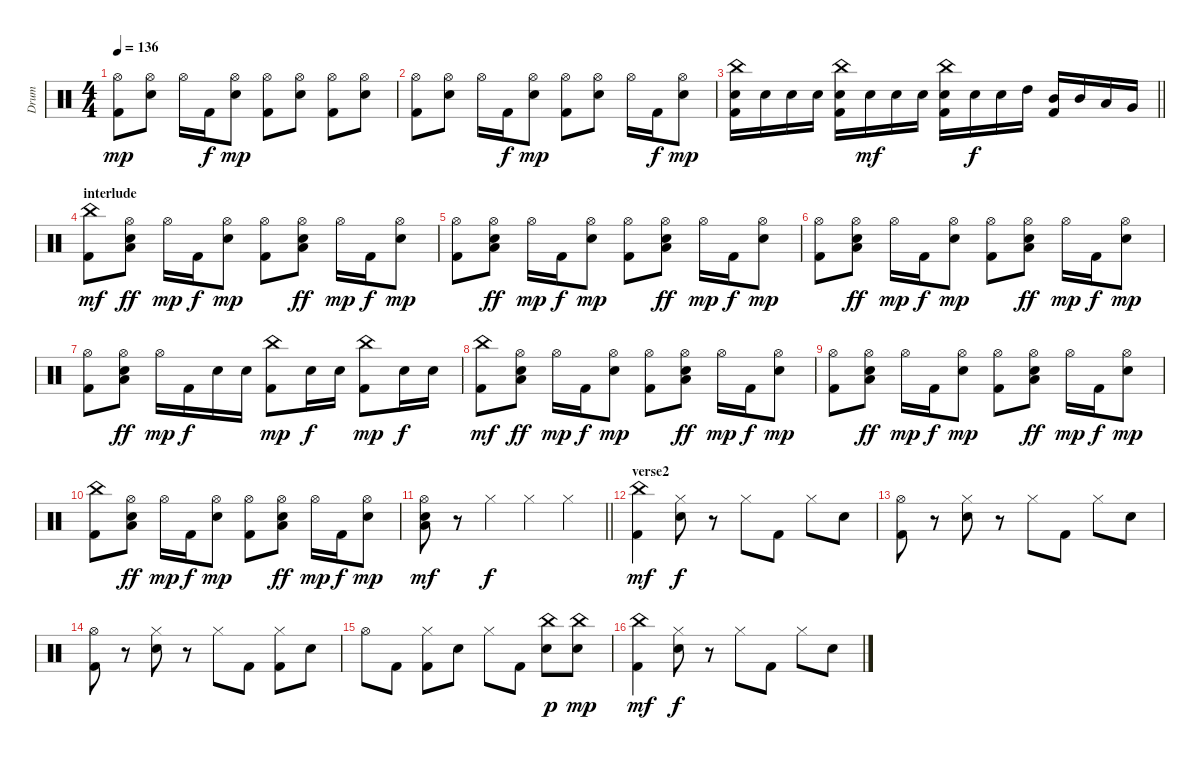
\track ("Drum" "Drum") {instrument percussion}
\staff {score}
\articulation defaults
\ts (4 4)
\tempo 136
\clef neutral
\ks c
("Kick (hit) 2" "Hi-Hat (open)").8{dy mp} ("Electric Snare (hit)" "Hi-Hat (open)").8 "Hi-Hat (open)".16 "Kick (hit) 2".16{dy f} ("Electric Snare (hit)" "Hi-Hat (open)").8{dy mp} ("Kick (hit) 2" "Hi-Hat (open)").8 ("Electric Snare (hit)" "Hi-Hat (open)").8 ("Kick (hit) 2" "Hi-Hat (open)").8 ("Electric Snare (hit)" "Hi-Hat (open)").8 |
("Kick (hit) 2" "Hi-Hat (open)").8 ("Electric Snare (hit)" "Hi-Hat (open)").8 "Hi-Hat (open)".16 "Kick (hit) 2".16{dy f} ("Electric Snare (hit)" "Hi-Hat (open)").8{dy mp} ("Kick (hit) 2" "Hi-Hat (open)").8 ("Electric Snare (hit)" "Hi-Hat (open)").8 "Hi-Hat (open)".16 "Kick (hit) 2".16{dy f} ("Electric Snare (hit)" "Hi-Hat (open)").8{dy mp} |
\barLineRight lightlight
("Electric Snare (hit)" "Kick (hit) 2" "China (hit)").16 "Electric Snare (hit)".16 "Electric Snare (hit)".16 "Electric Snare (hit)".16 ("Electric Snare (hit)" "Kick (hit) 2" "China (hit)").16 "Electric Snare (hit)".16{dy mf} "Electric Snare (hit)".16 "Electric Snare (hit)".16 ("Electric Snare (hit)" "Kick (hit) 2" "China (hit)").16 "Electric Snare (hit)".16{dy f} "Electric Snare (hit)".16 "High Tom (hit)".16 ("Mid Tom (hit)" "Kick (hit) 2").16 "Mid Tom (hit)".16 "Low Tom (hit)".16 "Very Low Tom (hit)".16 |
\section ("" "interlude")
("Kick (hit) 2" "China (hit)").8{dy mf} ("Electric Snare (hit)" "Hi-Hat (open)" "Low Tom (hit)").8{dy ff} "Hi-Hat (open)".16{dy mp} "Kick (hit) 2".16{dy f} ("Electric Snare (hit)" "Hi-Hat (open)").8{dy mp} ("Kick (hit) 2" "Hi-Hat (open)").8 ("Electric Snare (hit)" "Hi-Hat (open)" "Low Tom (hit)").8{dy ff} "Hi-Hat (open)".16{dy mp} "Kick (hit) 2".16{dy f} ("Electric Snare (hit)" "Hi-Hat (open)").8{dy mp} |
("Kick (hit) 2" "Hi-Hat (open)").8 ("Electric Snare (hit)" "Hi-Hat (open)" "Low Tom (hit)").8{dy ff} "Hi-Hat (open)".16{dy mp} "Kick (hit) 2".16{dy f} ("Electric Snare (hit)" "Hi-Hat (open)").8{dy mp} ("Kick (hit) 2" "Hi-Hat (open)").8 ("Electric Snare (hit)" "Hi-Hat (open)" "Low Tom (hit)").8{dy ff} "Hi-Hat (open)".16{dy mp} "Kick (hit) 2".16{dy f} ("Electric Snare (hit)" "Hi-Hat (open)").8{dy mp} |
("Kick (hit) 2" "Hi-Hat (open)").8 ("Electric Snare (hit)" "Hi-Hat (open)" "Low Tom (hit)").8{dy ff} "Hi-Hat (open)".16{dy mp} "Kick (hit) 2".16{dy f} ("Electric Snare (hit)" "Hi-Hat (open)").8{dy mp} ("Kick (hit) 2" "Hi-Hat (open)").8 ("Electric Snare (hit)" "Hi-Hat (open)" "Low Tom (hit)").8{dy ff} "Hi-Hat (open)".16{dy mp} "Kick (hit) 2".16{dy f} ("Electric Snare (hit)" "Hi-Hat (open)").8{dy mp} |
("Kick (hit) 2" "Hi-Hat (open)").8 ("Electric Snare (hit)" "Hi-Hat (open)" "Low Tom (hit)").8{dy ff} "Hi-Hat (open)".16{dy mp} "Kick (hit) 2".16{dy f} "Electric Snare (hit)".16 "Electric Snare (hit)".16 ("Kick (hit) 2" "China (hit)").8{dy mp} "Electric Snare (hit)".16{dy f} "Electric Snare (hit)".16 ("Kick (hit) 2" "China (hit)").8{dy mp} "Electric Snare (hit)".16{dy f} "Electric Snare (hit)".16 |
("Kick (hit) 2" "China (hit)").8{dy mf} ("Electric Snare (hit)" "Hi-Hat (open)" "Low Tom (hit)").8{dy ff} "Hi-Hat (open)".16{dy mp} "Kick (hit) 2".16{dy f} ("Electric Snare (hit)" "Hi-Hat (open)").8{dy mp} ("Kick (hit) 2" "Hi-Hat (open)").8 ("Electric Snare (hit)" "Hi-Hat (open)" "Low Tom (hit)").8{dy ff} "Hi-Hat (open)".16{dy mp} "Kick (hit) 2".16{dy f} ("Electric Snare (hit)" "Hi-Hat (open)").8{dy mp} |
("Kick (hit) 2" "Hi-Hat (open)").8 ("Electric Snare (hit)" "Hi-Hat (open)" "Low Tom (hit)").8{dy ff} "Hi-Hat (open)".16{dy mp} "Kick (hit) 2".16{dy f} ("Electric Snare (hit)" "Hi-Hat (open)").8{dy mp} ("Kick (hit) 2" "Hi-Hat (open)").8 ("Electric Snare (hit)" "Hi-Hat (open)" "Low Tom (hit)").8{dy ff} "Hi-Hat (open)".16{dy mp} "Kick (hit) 2".16{dy f} ("Electric Snare (hit)" "Hi-Hat (open)").8{dy mp} |
("Kick (hit) 2" "China (hit)").8 ("Electric Snare (hit)" "Hi-Hat (open)" "Low Tom (hit)").8{dy ff} "Hi-Hat (open)".16{dy mp} "Kick (hit) 2".16{dy f} ("Electric Snare (hit)" "Hi-Hat (open)").8{dy mp} ("Kick (hit) 2" "Hi-Hat (open)").8 ("Electric Snare (hit)" "Hi-Hat (open)" "Low Tom (hit)").8{dy ff} "Hi-Hat (open)".16{dy mp} "Kick (hit) 2".16{dy f} ("Electric Snare (hit)" "Hi-Hat (open)").8{dy mp} |
\barLineRight lightlight
("Electric Snare (hit)" "Hi-Hat (open)" "Low Tom (hit)").8{dy mf} r.8 "Hi-Hat (closed)".4{dy f} "Hi-Hat (closed)".4 "Hi-Hat (closed)".4 |
\section ("" "verse2")
("Kick (hit) 2" "China (hit)").4{dy mf} ("Hi-Hat (closed)" "Electric Snare (hit)").8{dy f} r.8 "Hi-Hat (closed)".8 "Kick (hit) 2".8 "Hi-Hat (closed)".8 "Electric Snare (hit)".8 |
("Kick (hit) 2" "Hi-Hat (open)").8 r.8 ("Hi-Hat (closed)" "Electric Snare (hit)").8 r.8 "Hi-Hat (closed)".8 "Kick (hit) 2".8 "Hi-Hat (closed)".8 "Electric Snare (hit)".8 |
("Kick (hit) 2" "Hi-Hat (open)").8 r.8 ("Hi-Hat (closed)" "Electric Snare (hit)").8 r.8 "Hi-Hat (closed)".8 "Kick (hit) 2".8 ("Kick (hit) 2" "Hi-Hat (closed)").8 "Electric Snare (hit)".8 |
"Hi-Hat (open)".8 "Kick (hit) 2".8 ("Kick (hit) 2" "Hi-Hat (closed)").8 "Electric Snare (hit)".8 "Hi-Hat (closed)".8 "Kick (hit) 2".8 ("Electric Snare (hit)" "China (hit)").8{dy p} ("Electric Snare (hit)" "China (hit)").8{dy mp} |
("Kick (hit) 2" "China (hit)").4{dy mf} ("Hi-Hat (closed)" "Electric Snare (hit)").8{dy f} r.8 "Hi-Hat (closed)".8 "Kick (hit) 2".8 "Hi-Hat (closed)".8 "Electric Snare (hit)".8
